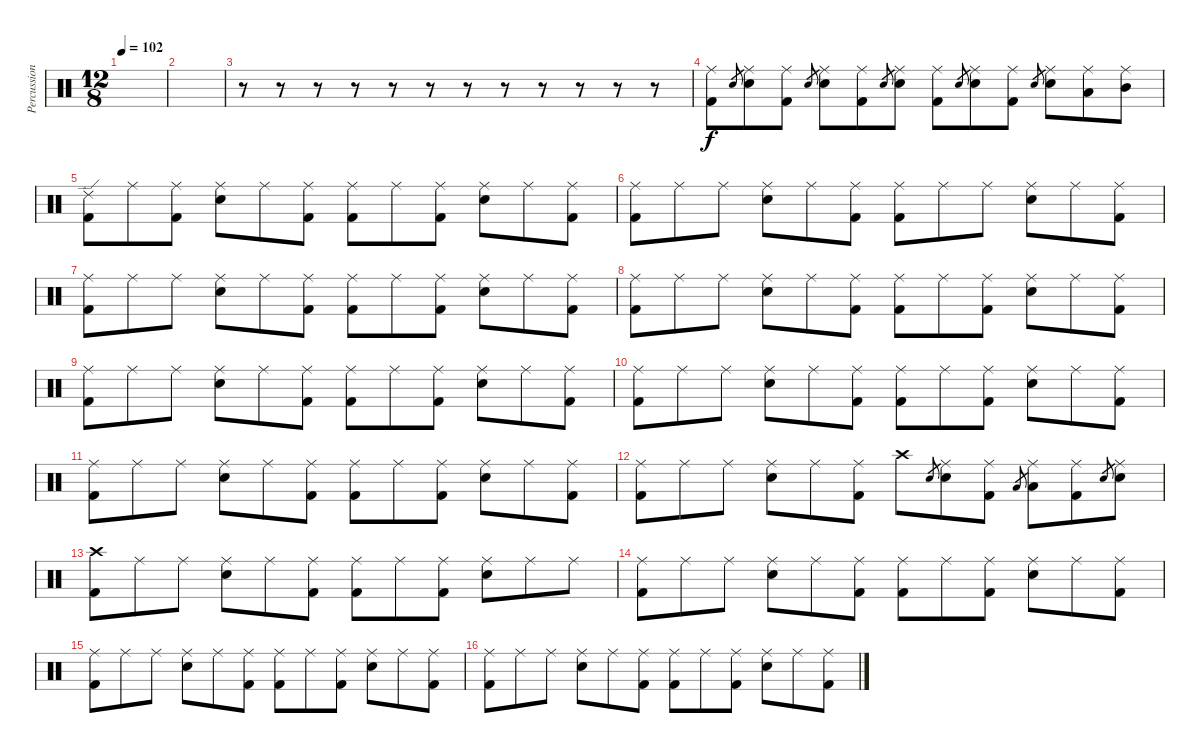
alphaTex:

\track ("Percussion" "Percussion") {instrument percussion}
\staff {score}
\articulation defaults
\ts (12 8)
\tempo 102
\clef neutral
\ks c
|
|
r.8 r.8 r.8 r.8 r.8 r.8 r.8 r.8 r.8 r.8 r.8 r.8 |
("Ride (middle)" "Kick (hit) 2").8 "Electric Snare (hit)".8{gr} ("Ride (middle)" "Electric Snare (hit)").8 ("Ride (middle)" "Kick (hit) 2").8 "Electric Snare (hit)".8{gr} ("Ride (middle)" "Electric Snare (hit)").8 ("Ride (middle)" "Kick (hit) 2").8 "Electric Snare (hit)".8{gr} ("Ride (middle)" "Electric Snare (hit)").8 ("Ride (middle)" "Kick (hit) 2").8 "Electric Snare (hit)".8{gr} ("Ride (middle)" "Electric Snare (hit)").8 ("Ride (middle)" "Kick (hit) 2").8 "Electric Snare (hit)".8{gr} ("Ride (middle)" "Electric Snare (hit)").8 ("Ride (middle)" "Low Tom (hit)").8 ("Ride (middle)" "Mid Tom (hit)").8 |
("Ride (edge) 2" "Kick (hit) 2").8 "Ride (middle)".8 ("Ride (middle)" "Kick (hit) 2").8 ("Ride (middle)" "Electric Snare (hit)").8 "Ride (middle)".8 ("Ride (middle)" "Kick (hit) 2").8 ("Ride (middle)" "Kick (hit) 2").8 "Ride (middle)".8 ("Ride (middle)" "Kick (hit) 2").8 ("Ride (middle)" "Electric Snare (hit)").8 "Ride (middle)".8 ("Ride (middle)" "Kick (hit) 2").8 |
("Ride (middle)" "Kick (hit) 2").8 "Ride (middle)".8 "Ride (middle)".8 ("Ride (middle)" "Electric Snare (hit)").8 "Ride (middle)".8 ("Ride (middle)" "Kick (hit) 2").8 ("Ride (middle)" "Kick (hit) 2").8 "Ride (middle)".8 "Ride (middle)".8 ("Ride (middle)" "Electric Snare (hit)").8 "Ride (middle)".8 ("Ride (middle)" "Kick (hit) 2").8 |
("Ride (middle)" "Kick (hit) 2").8 "Ride (middle)".8 "Ride (middle)".8 ("Ride (middle)" "Electric Snare (hit)").8 "Ride (middle)".8 ("Ride (middle)" "Kick (hit) 2").8 ("Ride (middle)" "Kick (hit) 2").8 "Ride (middle)".8 ("Ride (middle)" "Kick (hit) 2").8 ("Ride (middle)" "Electric Snare (hit)").8 "Ride (middle)".8 ("Ride (middle)" "Kick (hit) 2").8 |
("Ride (middle)" "Kick (hit) 2").8 "Ride (middle)".8 "Ride (middle)".8 ("Ride (middle)" "Electric Snare (hit)").8 "Ride (middle)".8 ("Ride (middle)" "Kick (hit) 2").8 ("Ride (middle)" "Kick (hit) 2").8 "Ride (middle)".8 ("Ride (middle)" "Kick (hit) 2").8 ("Ride (middle)" "Electric Snare (hit)").8 "Ride (middle)".8 ("Ride (middle)" "Kick (hit) 2").8 |
("Ride (middle)" "Kick (hit) 2").8 "Ride (middle)".8 "Ride (middle)".8 ("Ride (middle)" "Electric Snare (hit)").8 "Ride (middle)".8 ("Ride (middle)" "Kick (hit) 2").8 ("Ride (middle)" "Kick (hit) 2").8 "Ride (middle)".8 ("Ride (middle)" "Kick (hit) 2").8 ("Ride (middle)" "Electric Snare (hit)").8 "Ride (middle)".8 ("Ride (middle)" "Kick (hit) 2").8 |
("Ride (middle)" "Kick (hit) 2").8 "Ride (middle)".8 "Ride (middle)".8 ("Ride (middle)" "Electric Snare (hit)").8 "Ride (middle)".8 ("Ride (middle)" "Kick (hit) 2").8 ("Ride (middle)" "Kick (hit) 2").8 "Ride (middle)".8 ("Ride (middle)" "Kick (hit) 2").8 ("Ride (middle)" "Electric Snare (hit)").8 "Ride (middle)".8 ("Ride (middle)" "Kick (hit) 2").8 |
("Ride (middle)" "Kick (hit) 2").8 "Ride (middle)".8 "Ride (middle)".8 ("Ride (middle)" "Electric Snare (hit)").8 "Ride (middle)".8 ("Ride (middle)" "Kick (hit) 2").8 ("Ride (middle)" "Kick (hit) 2").8 "Ride (middle)".8 ("Ride (middle)" "Kick (hit) 2").8 ("Ride (middle)" "Electric Snare (hit)").8 "Ride (middle)".8 ("Ride (middle)" "Kick (hit) 2").8 |
("Ride (middle)" "Kick (hit) 2").8 "Ride (middle)".8 "Ride (middle)".8 ("Ride (middle)" "Electric Snare (hit)").8 "Ride (middle)".8 ("Ride (middle)" "Kick (hit) 2").8 "Crash high (hit)".8 "Electric Snare (hit)".8{gr} ("Ride (middle)" "Electric Snare (hit)").8 ("Ride (middle)" "Kick (hit) 2").8 "Low Tom (hit)".8{gr} ("Ride (middle)" "Low Tom (hit)").8 ("Ride (middle)" "Kick (hit) 2").8 "Electric Snare (hit)".8{gr} ("Ride (middle)" "Electric Snare (hit)").8 |
("Crash high (hit)" "Kick (hit) 2").8 "Ride (middle)".8 "Ride (middle)".8 ("Ride (middle)" "Electric Snare (hit)").8 "Ride (middle)".8 ("Ride (middle)" "Kick (hit) 2").8 ("Ride (middle)" "Kick (hit) 2").8 "Ride (middle)".8 ("Ride (middle)" "Kick (hit) 2").8 ("Ride (middle)" "Electric Snare (hit)").8 "Ride (middle)".8 "Ride (middle)".8 |
("Ride (middle)" "Kick (hit) 2").8 "Ride (middle)".8 "Ride (middle)".8 ("Ride (middle)" "Electric Snare (hit)").8 "Ride (middle)".8 ("Ride (middle)" "Kick (hit) 2").8 ("Ride (middle)" "Kick (hit) 2").8 "Ride (middle)".8 ("Ride (middle)" "Kick (hit) 2").8 ("Ride (middle)" "Electric Snare (hit)").8 "Ride (middle)".8 ("Ride (middle)" "Kick (hit) 2").8 |
("Ride (middle)" "Kick (hit) 2").8 "Ride (middle)".8 "Ride (middle)".8 ("Ride (middle)" "Electric Snare (hit)").8 "Ride (middle)".8 ("Ride (middle)" "Kick (hit) 2").8 ("Ride (middle)" "Kick (hit) 2").8 "Ride (middle)".8 ("Ride (middle)" "Kick (hit) 2").8 ("Ride (middle)" "Electric Snare (hit)").8 "Ride (middle)".8 ("Ride (middle)" "Kick (hit) 2").8 |
("Ride (middle)" "Kick (hit) 2").8 "Ride (middle)".8 "Ride (middle)".8 ("Ride (middle)" "Electric Snare (hit)").8 "Ride (middle)".8 ("Ride (middle)" "Kick (hit) 2").8 ("Ride (middle)" "Kick (hit) 2").8 "Ride (middle)".8 ("Ride (middle)" "Kick (hit) 2").8 ("Ride (middle)" "Electric Snare (hit)").8 "Ride (middle)".8 ("Ride (middle)" "Kick (hit) 2").8
